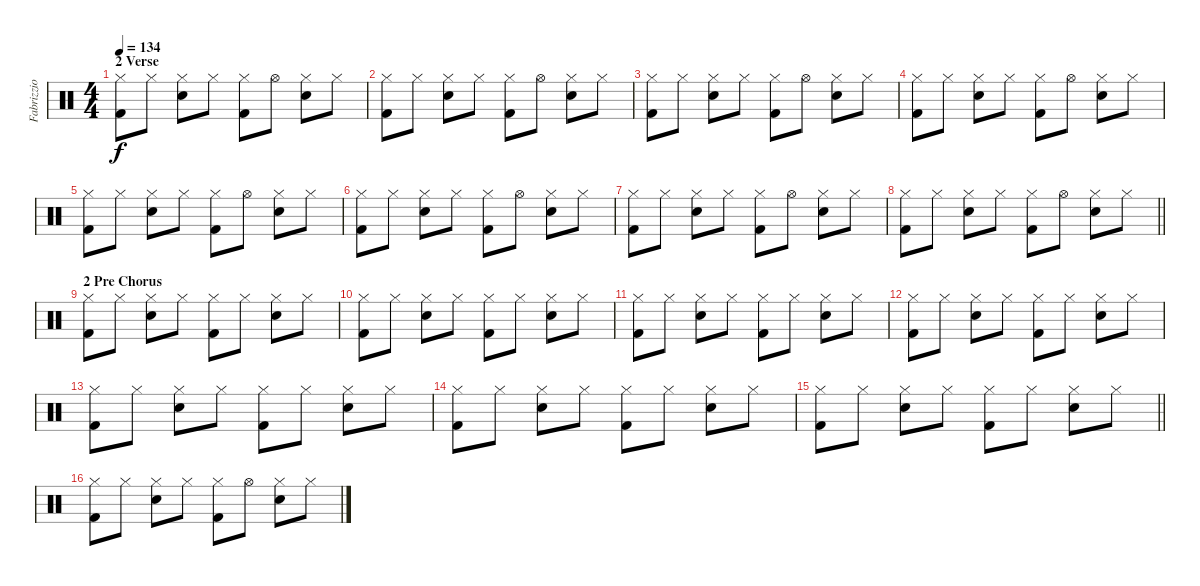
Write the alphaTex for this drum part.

\track ("Fabrizzio" "Fabrizzio") {instrument percussion}
\staff {score}
\articulation defaults
\ts (4 4)
\section ("" "2 Verse")
\tempo 134
\clef neutral
\ks c
("Hi-Hat (closed)" "Kick (hit) 2").8{dy f} "Hi-Hat (closed)".8 ("Hi-Hat (closed)" "Snare (hit) 2").8 "Hi-Hat (closed)".8 ("Hi-Hat (closed)" "Kick (hit) 2").8 "Hi-Hat (open)".8 ("Hi-Hat (closed)" "Snare (hit) 2").8 "Hi-Hat (closed)".8 |
("Hi-Hat (closed)" "Kick (hit) 2").8 "Hi-Hat (closed)".8 ("Hi-Hat (closed)" "Snare (hit) 2").8 "Hi-Hat (closed)".8 ("Hi-Hat (closed)" "Kick (hit) 2").8 "Hi-Hat (open)".8 ("Hi-Hat (closed)" "Snare (hit) 2").8 "Hi-Hat (closed)".8 |
("Hi-Hat (closed)" "Kick (hit) 2").8 "Hi-Hat (closed)".8 ("Hi-Hat (closed)" "Snare (hit) 2").8 "Hi-Hat (closed)".8 ("Hi-Hat (closed)" "Kick (hit) 2").8 "Hi-Hat (open)".8 ("Hi-Hat (closed)" "Snare (hit) 2").8 "Hi-Hat (closed)".8 |
("Hi-Hat (closed)" "Kick (hit) 2").8 "Hi-Hat (closed)".8 ("Hi-Hat (closed)" "Snare (hit) 2").8 "Hi-Hat (closed)".8 ("Hi-Hat (closed)" "Kick (hit) 2").8 "Hi-Hat (open)".8 ("Hi-Hat (closed)" "Snare (hit) 2").8 "Hi-Hat (closed)".8 |
("Hi-Hat (closed)" "Kick (hit) 2").8 "Hi-Hat (closed)".8 ("Hi-Hat (closed)" "Snare (hit) 2").8 "Hi-Hat (closed)".8 ("Hi-Hat (closed)" "Kick (hit) 2").8 "Hi-Hat (open)".8 ("Hi-Hat (closed)" "Snare (hit) 2").8 "Hi-Hat (closed)".8 |
("Hi-Hat (closed)" "Kick (hit) 2").8 "Hi-Hat (closed)".8 ("Hi-Hat (closed)" "Snare (hit) 2").8 "Hi-Hat (closed)".8 ("Hi-Hat (closed)" "Kick (hit) 2").8 "Hi-Hat (open)".8 ("Hi-Hat (closed)" "Snare (hit) 2").8 "Hi-Hat (closed)".8 |
("Hi-Hat (closed)" "Kick (hit) 2").8 "Hi-Hat (closed)".8 ("Hi-Hat (closed)" "Snare (hit) 2").8 "Hi-Hat (closed)".8 ("Hi-Hat (closed)" "Kick (hit) 2").8 "Hi-Hat (open)".8 ("Hi-Hat (closed)" "Snare (hit) 2").8 "Hi-Hat (closed)".8 |
\barLineRight lightlight
("Hi-Hat (closed)" "Kick (hit) 2").8 "Hi-Hat (closed)".8 ("Hi-Hat (closed)" "Snare (hit) 2").8 "Hi-Hat (closed)".8 ("Hi-Hat (closed)" "Kick (hit) 2").8 "Hi-Hat (open)".8 ("Hi-Hat (closed)" "Snare (hit) 2").8 "Hi-Hat (closed)".8 |
\section ("" "2 Pre Chorus")
("Hi-Hat (closed)" "Kick (hit) 2").8 "Hi-Hat (closed)".8 ("Hi-Hat (closed)" "Snare (hit) 2").8 "Hi-Hat (closed)".8 ("Hi-Hat (closed)" "Kick (hit) 2").8 "Hi-Hat (closed)".8 ("Hi-Hat (closed)" "Snare (hit) 2").8 "Hi-Hat (closed)".8 |
("Hi-Hat (closed)" "Kick (hit) 2").8 "Hi-Hat (closed)".8 ("Hi-Hat (closed)" "Snare (hit) 2").8 "Hi-Hat (closed)".8 ("Hi-Hat (closed)" "Kick (hit) 2").8 "Hi-Hat (closed)".8 ("Hi-Hat (closed)" "Snare (hit) 2").8 "Hi-Hat (closed)".8 |
("Hi-Hat (closed)" "Kick (hit) 2").8 "Hi-Hat (closed)".8 ("Hi-Hat (closed)" "Snare (hit) 2").8 "Hi-Hat (closed)".8 ("Hi-Hat (closed)" "Kick (hit) 2").8 "Hi-Hat (closed)".8 ("Hi-Hat (closed)" "Snare (hit) 2").8 "Hi-Hat (closed)".8 |
("Hi-Hat (closed)" "Kick (hit) 2").8 "Hi-Hat (closed)".8 ("Hi-Hat (closed)" "Snare (hit) 2").8 "Hi-Hat (closed)".8 ("Hi-Hat (closed)" "Kick (hit) 2").8 "Hi-Hat (closed)".8 ("Hi-Hat (closed)" "Snare (hit) 2").8 "Hi-Hat (closed)".8 |
("Hi-Hat (closed)" "Kick (hit) 2").8 "Hi-Hat (closed)".8 ("Hi-Hat (closed)" "Snare (hit) 2").8 "Hi-Hat (closed)".8 ("Hi-Hat (closed)" "Kick (hit) 2").8 "Hi-Hat (closed)".8 ("Hi-Hat (closed)" "Snare (hit) 2").8 "Hi-Hat (closed)".8 |
("Hi-Hat (closed)" "Kick (hit) 2").8 "Hi-Hat (closed)".8 ("Hi-Hat (closed)" "Snare (hit) 2").8 "Hi-Hat (closed)".8 ("Hi-Hat (closed)" "Kick (hit) 2").8 "Hi-Hat (closed)".8 ("Hi-Hat (closed)" "Snare (hit) 2").8 "Hi-Hat (closed)".8 |
\barLineRight lightlight
("Hi-Hat (closed)" "Kick (hit) 2").8 "Hi-Hat (closed)".8 ("Hi-Hat (closed)" "Snare (hit) 2").8 "Hi-Hat (closed)".8 ("Hi-Hat (closed)" "Kick (hit) 2").8 "Hi-Hat (closed)".8 ("Hi-Hat (closed)" "Snare (hit) 2").8 "Hi-Hat (closed)".8 |
("Hi-Hat (closed)" "Kick (hit) 2").8 "Hi-Hat (closed)".8 ("Hi-Hat (closed)" "Snare (hit) 2").8 "Hi-Hat (closed)".8 ("Hi-Hat (closed)" "Kick (hit) 2").8 "Hi-Hat (open)".8 ("Hi-Hat (closed)" "Snare (hit) 2").8 "Hi-Hat (closed)".8
